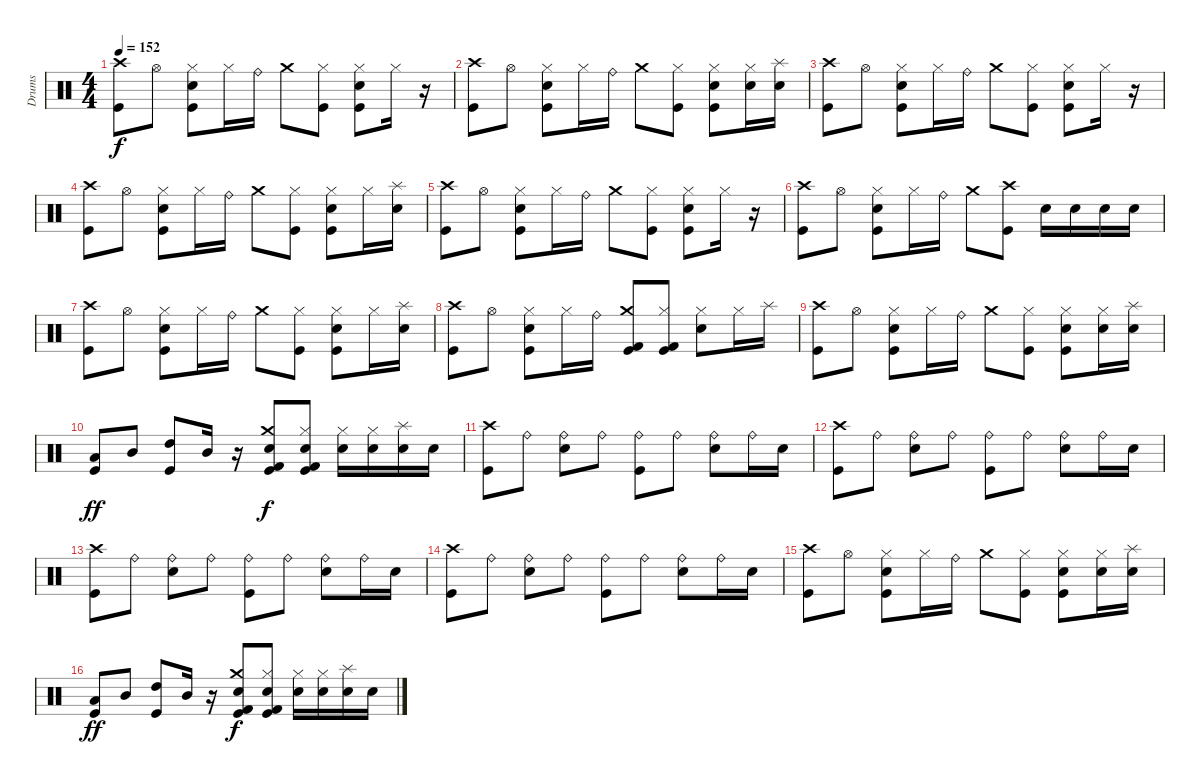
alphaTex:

\track ("Drums" "Drums") {instrument percussion}
\staff {score}
\articulation defaults
\ts (4 4)
\tempo 152
\clef neutral
\ks c
("Crash high (hit)" "Kick (hit)").8{dy f} "Hi-Hat (open)".8 ("Hi-Hat (closed)" "Electric Snare (hit)" "Kick (hit)").8 "Hi-Hat (closed)".16 "Ride (bell)".16 "Crash medium (hit)".8 ("Hi-Hat (closed)" "Kick (hit)").8 ("Hi-Hat (closed)" "Electric Snare (hit)" "Kick (hit)").8 "Hi-Hat (closed)".16 r.16 |
("Crash high (hit)" "Kick (hit)").8 "Hi-Hat (open)".8 ("Hi-Hat (closed)" "Electric Snare (hit)" "Kick (hit)").8 "Hi-Hat (closed)".16 "Ride (bell)".16 "Crash medium (hit)".8 ("Hi-Hat (closed)" "Kick (hit)").8 ("Hi-Hat (closed)" "Electric Snare (hit)" "Kick (hit)").8 ("Hi-Hat (closed)" "Electric Snare (hit)").16 ("Splash (hit)" "Electric Snare (hit)").16 |
("Crash high (hit)" "Kick (hit)").8 "Hi-Hat (open)".8 ("Hi-Hat (closed)" "Electric Snare (hit)" "Kick (hit)").8 "Hi-Hat (closed)".16 "Ride (bell)".16 "Crash medium (hit)".8 ("Hi-Hat (closed)" "Kick (hit)").8 ("Hi-Hat (closed)" "Electric Snare (hit)" "Kick (hit)").8 "Hi-Hat (closed)".16 r.16 |
("Crash high (hit)" "Kick (hit)").8 "Hi-Hat (open)".8 ("Hi-Hat (closed)" "Electric Snare (hit)" "Kick (hit)").8 "Hi-Hat (closed)".16 "Ride (bell)".16 "Crash medium (hit)".8 ("Hi-Hat (closed)" "Kick (hit)").8 ("Hi-Hat (closed)" "Electric Snare (hit)" "Kick (hit)").8 "Hi-Hat (closed)".16 ("Splash (hit)" "Electric Snare (hit)").16 |
("Crash high (hit)" "Kick (hit)").8 "Hi-Hat (open)".8 ("Hi-Hat (closed)" "Electric Snare (hit)" "Kick (hit)").8 "Hi-Hat (closed)".16 "Ride (bell)".16 "Crash medium (hit)".8 ("Hi-Hat (closed)" "Kick (hit)").8 ("Hi-Hat (closed)" "Electric Snare (hit)" "Kick (hit)").8 "Hi-Hat (closed)".16 r.16 |
("Crash high (hit)" "Kick (hit)").8 "Hi-Hat (open)".8 ("Hi-Hat (closed)" "Electric Snare (hit)" "Kick (hit)").8 "Hi-Hat (closed)".16 "Ride (bell)".16 "Crash medium (hit)".8 ("Crash high (hit)" "Kick (hit)").8 "Electric Snare (hit)".16 "Electric Snare (hit)".16 "Electric Snare (hit)".16 "Electric Snare (hit)".16 |
("Crash high (hit)" "Kick (hit)").8 "Hi-Hat (open)".8 ("Hi-Hat (closed)" "Electric Snare (hit)" "Kick (hit)").8 "Hi-Hat (closed)".16 "Ride (bell)".16 "Crash medium (hit)".8 ("Hi-Hat (closed)" "Kick (hit)").8 ("Hi-Hat (closed)" "Electric Snare (hit)" "Kick (hit)").8 "Hi-Hat (closed)".16 ("Splash (hit)" "Electric Snare (hit)").16 |
("Crash high (hit)" "Kick (hit)").8 "Hi-Hat (open)".8 ("Hi-Hat (closed)" "Electric Snare (hit)" "Kick (hit)").8 "Hi-Hat (closed)".16 "Ride (bell)".16 ("Crash medium (hit)" "Kick (hit) 2" "Kick (hit)").8 ("Hi-Hat (closed)" "Kick (hit) 2" "Kick (hit)").8 ("Hi-Hat (closed)" "Electric Snare (hit)").8 "Hi-Hat (closed)".16 "Splash (hit)".16 |
("Crash high (hit)" "Kick (hit)").8 "Hi-Hat (open)".8 ("Hi-Hat (closed)" "Electric Snare (hit)" "Kick (hit)").8 "Hi-Hat (closed)".16 "Ride (bell)".16 "Crash medium (hit)".8 ("Hi-Hat (closed)" "Kick (hit)").8 ("Hi-Hat (closed)" "Electric Snare (hit)" "Kick (hit)").8 ("Hi-Hat (closed)" "Electric Snare (hit)").16 ("Splash (hit)" "Electric Snare (hit)").16 |
("Low Tom (hit)" "Kick (hit)").8{dy ff} "Mid Tom (hit)".8 ("High Tom (hit)" "Kick (hit)").8 "Mid Tom (hit)".16 r.16 ("Crash medium (hit)" "Electric Snare (hit)" "Kick (hit) 2" "Kick (hit)").8{dy f} ("Hi-Hat (closed)" "Electric Snare (hit)" "Kick (hit) 2" "Kick (hit)").8 ("Hi-Hat (closed)" "Electric Snare (hit)").16 ("Hi-Hat (closed)" "Electric Snare (hit)").16 ("Splash (hit)" "Electric Snare (hit)").16 "Electric Snare (hit)".16 |
("Crash high (hit)" "Kick (hit)").8 "Ride (bell)".8 ("Ride (bell)" "Electric Snare (hit)").8 "Ride (bell)".8 ("Ride (bell)" "Kick (hit)").8 "Ride (bell)".8 ("Ride (bell)" "Electric Snare (hit)").8 "Ride (bell)".16 "Electric Snare (hit)".16 |
("Crash high (hit)" "Kick (hit)").8 "Ride (bell)".8 ("Ride (bell)" "Electric Snare (hit)").8 "Ride (bell)".8 ("Ride (bell)" "Kick (hit)").8 "Ride (bell)".8 ("Ride (bell)" "Electric Snare (hit)").8 "Ride (bell)".16 "Electric Snare (hit)".16 |
("Crash high (hit)" "Kick (hit)").8 "Ride (bell)".8 ("Ride (bell)" "Electric Snare (hit)").8 "Ride (bell)".8 ("Ride (bell)" "Kick (hit)").8 "Ride (bell)".8 ("Ride (bell)" "Electric Snare (hit)").8 "Ride (bell)".16 "Electric Snare (hit)".16 |
("Crash high (hit)" "Kick (hit)").8 "Ride (bell)".8 ("Ride (bell)" "Electric Snare (hit)").8 "Ride (bell)".8 ("Ride (bell)" "Kick (hit)").8 "Ride (bell)".8 ("Ride (bell)" "Electric Snare (hit)").8 "Ride (bell)".16 "Electric Snare (hit)".16 |
("Crash high (hit)" "Kick (hit)").8 "Hi-Hat (open)".8 ("Hi-Hat (closed)" "Electric Snare (hit)" "Kick (hit)").8 "Hi-Hat (closed)".16 "Ride (bell)".16 "Crash medium (hit)".8 ("Hi-Hat (closed)" "Kick (hit)").8 ("Hi-Hat (closed)" "Electric Snare (hit)" "Kick (hit)").8 ("Hi-Hat (closed)" "Electric Snare (hit)").16 ("Splash (hit)" "Electric Snare (hit)").16 |
("Low Tom (hit)" "Kick (hit)").8{dy ff} "Mid Tom (hit)".8 ("High Tom (hit)" "Kick (hit)").8 "Mid Tom (hit)".16 r.16 ("Crash medium (hit)" "Electric Snare (hit)" "Kick (hit) 2" "Kick (hit)").8{dy f} ("Hi-Hat (closed)" "Electric Snare (hit)" "Kick (hit) 2" "Kick (hit)").8 ("Hi-Hat (closed)" "Electric Snare (hit)").16 ("Hi-Hat (closed)" "Electric Snare (hit)").16 ("Splash (hit)" "Electric Snare (hit)").16 "Electric Snare (hit)".16
